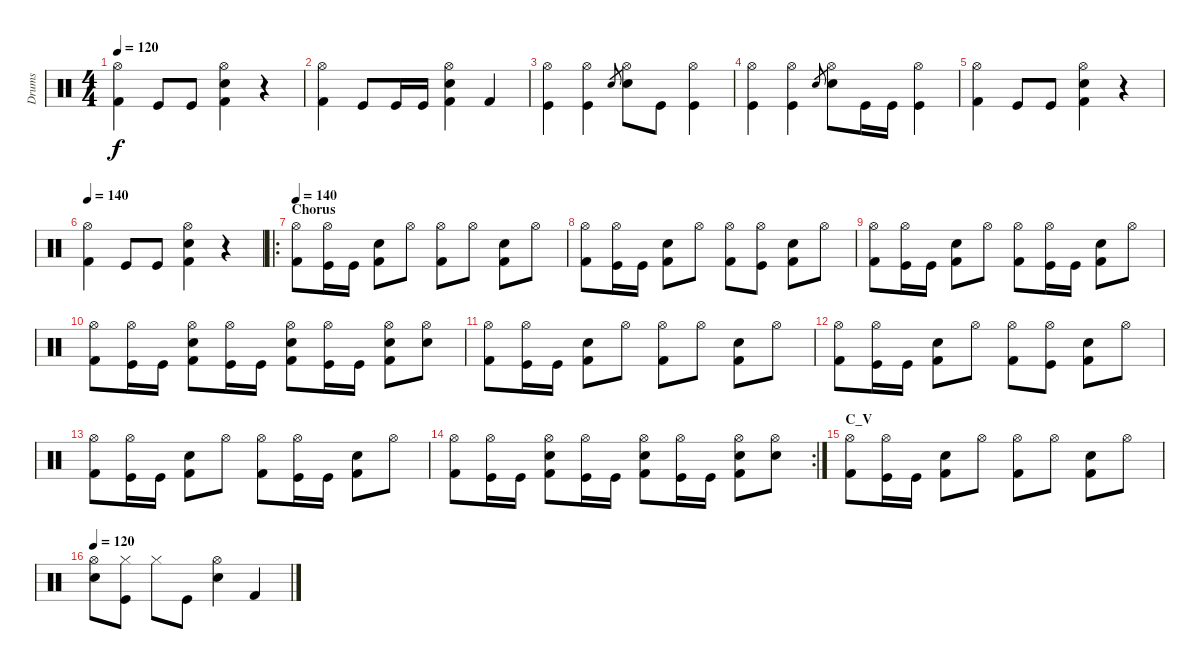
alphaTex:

\track ("Drums" "Drums") {instrument percussion}
\staff {score}
\articulation defaults
\ts (4 4)
\tempo 120
\clef neutral
\ks c
("Hi-Hat (open)" "Kick (hit) 2").4{dy f} "Kick (hit)".8 "Kick (hit)".8 ("Electric Snare (hit)" "Hi-Hat (open)" "Kick (hit) 2").4 r.4 |
("Hi-Hat (open)" "Kick (hit) 2").4 "Kick (hit)".8 "Kick (hit)".16 "Kick (hit)".16 ("Electric Snare (hit)" "Hi-Hat (open)" "Kick (hit) 2").4 "Kick (hit) 2".4 |
("Hi-Hat (open)" "Kick (hit)").4 ("Hi-Hat (open)" "Kick (hit)").4 "Snare (hit) 2".8{gr} ("Hi-Hat (open)" "Electric Snare (hit)").8 "Kick (hit)".8 ("Hi-Hat (open)" "Kick (hit)").4 |
("Hi-Hat (open)" "Kick (hit)").4 ("Hi-Hat (open)" "Kick (hit)").4 "Snare (hit) 2".8{gr} ("Hi-Hat (open)" "Electric Snare (hit)").8 "Kick (hit)".16 "Kick (hit)".16 ("Hi-Hat (open)" "Kick (hit)").4 |
("Hi-Hat (open)" "Kick (hit) 2").4 "Kick (hit)".8 "Kick (hit)".8 ("Electric Snare (hit)" "Hi-Hat (open)" "Kick (hit) 2").4 r.4 |
\tempo 140
("Hi-Hat (open)" "Kick (hit) 2").4 "Kick (hit)".8 "Kick (hit)".8 ("Electric Snare (hit)" "Hi-Hat (open)" "Kick (hit) 2").4 r.4 |
\ro
\section ("" "Chorus")
\tempo 140
("Hi-Hat (open)" "Kick (hit) 2").8 ("Hi-Hat (open)" "Kick (hit)").16 "Kick (hit)".16 ("Electric Snare (hit)" "Kick (hit) 2").8 "Hi-Hat (open)".8 ("Hi-Hat (open)" "Kick (hit) 2").8 "Hi-Hat (open)".8 ("Electric Snare (hit)" "Kick (hit) 2").8 "Hi-Hat (open)".8 |
("Hi-Hat (open)" "Kick (hit) 2").8 ("Hi-Hat (open)" "Kick (hit)").16 "Kick (hit)".16 ("Electric Snare (hit)" "Kick (hit) 2").8 "Hi-Hat (open)".8 ("Hi-Hat (open)" "Kick (hit) 2").8 ("Hi-Hat (open)" "Kick (hit)").8 ("Electric Snare (hit)" "Kick (hit) 2").8 "Hi-Hat (open)".8 |
("Hi-Hat (open)" "Kick (hit) 2").8 ("Hi-Hat (open)" "Kick (hit)").16 "Kick (hit)".16 ("Electric Snare (hit)" "Kick (hit) 2").8 "Hi-Hat (open)".8 ("Hi-Hat (open)" "Kick (hit) 2").8 ("Hi-Hat (open)" "Kick (hit)").16 "Kick (hit)".16 ("Electric Snare (hit)" "Kick (hit) 2").8 "Hi-Hat (open)".8 |
("Hi-Hat (open)" "Kick (hit) 2").8 ("Hi-Hat (open)" "Kick (hit)").16 "Kick (hit)".16 ("Electric Snare (hit)" "Hi-Hat (open)" "Kick (hit) 2").8 ("Hi-Hat (open)" "Kick (hit)").16 "Kick (hit)".16 ("Electric Snare (hit)" "Hi-Hat (open)" "Kick (hit) 2").8 ("Hi-Hat (open)" "Kick (hit)").16 "Kick (hit)".16 ("Electric Snare (hit)" "Hi-Hat (open)" "Kick (hit) 2").8 ("Electric Snare (hit)" "Hi-Hat (open)").8 |
("Hi-Hat (open)" "Kick (hit) 2").8 ("Hi-Hat (open)" "Kick (hit)").16 "Kick (hit)".16 ("Electric Snare (hit)" "Kick (hit) 2").8 "Hi-Hat (open)".8 ("Hi-Hat (open)" "Kick (hit) 2").8 "Hi-Hat (open)".8 ("Electric Snare (hit)" "Kick (hit) 2").8 "Hi-Hat (open)".8 |
("Hi-Hat (open)" "Kick (hit) 2").8 ("Hi-Hat (open)" "Kick (hit)").16 "Kick (hit)".16 ("Electric Snare (hit)" "Kick (hit) 2").8 "Hi-Hat (open)".8 ("Hi-Hat (open)" "Kick (hit) 2").8 ("Hi-Hat (open)" "Kick (hit)").8 ("Electric Snare (hit)" "Kick (hit) 2").8 "Hi-Hat (open)".8 |
("Hi-Hat (open)" "Kick (hit) 2").8 ("Hi-Hat (open)" "Kick (hit)").16 "Kick (hit)".16 ("Electric Snare (hit)" "Kick (hit) 2").8 "Hi-Hat (open)".8 ("Hi-Hat (open)" "Kick (hit) 2").8 ("Hi-Hat (open)" "Kick (hit)").16 "Kick (hit)".16 ("Electric Snare (hit)" "Kick (hit) 2").8 "Hi-Hat (open)".8 |
\rc 2
("Hi-Hat (open)" "Kick (hit) 2").8 ("Hi-Hat (open)" "Kick (hit)").16 "Kick (hit)".16 ("Electric Snare (hit)" "Hi-Hat (open)" "Kick (hit) 2").8 ("Hi-Hat (open)" "Kick (hit)").16 "Kick (hit)".16 ("Electric Snare (hit)" "Hi-Hat (open)" "Kick (hit) 2").8 ("Hi-Hat (open)" "Kick (hit)").16 "Kick (hit)".16 ("Electric Snare (hit)" "Hi-Hat (open)" "Kick (hit) 2").8 ("Electric Snare (hit)" "Hi-Hat (open)").8 |
\section ("" "C_V")
("Hi-Hat (open)" "Kick (hit) 2").8 ("Hi-Hat (open)" "Kick (hit)").16 "Kick (hit)".16 ("Electric Snare (hit)" "Kick (hit) 2").8 "Hi-Hat (open)".8 ("Hi-Hat (open)" "Kick (hit) 2").8 "Hi-Hat (open)".8 ("Electric Snare (hit)" "Kick (hit) 2").8 "Hi-Hat (open)".8 |
\tempo 120
("Hi-Hat (open)" "Electric Snare (hit)").8 ("Hi-Hat (closed)" "Kick (hit)").8 "Hi-Hat (closed)".8 "Kick (hit)".8 ("Hi-Hat (open)" "Electric Snare (hit)").4 "Kick (hit) 2".4
